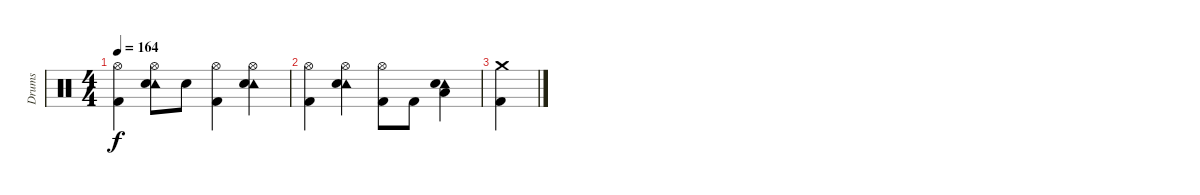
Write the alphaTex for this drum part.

\track ("Drums" "Drums") {instrument percussion}
\staff {score}
\articulation defaults
\ts (4 4)
\tempo 164
\clef neutral
\ks c
("Hi-Hat (open)" "Kick (hit) 2").4{dy f} ("Tambourine (hit)" "Hi-Hat (open)" "Snare (hit) 2").8 "Snare (hit) 2".8 ("Hi-Hat (open)" "Kick (hit) 2").4 ("Tambourine (hit)" "Hi-Hat (open)" "Snare (hit) 2").4 |
("Hi-Hat (open)" "Kick (hit) 2").4 ("Tambourine (hit)" "Hi-Hat (open)" "Snare (hit) 2").4 ("Hi-Hat (open)" "Kick (hit) 2").8 "Kick (hit) 2".8 ("Tambourine (hit)" "Snare (hit) 2" "Low Tom (hit)").4 |
("Crash medium (hit)" "Kick (hit) 2").4
